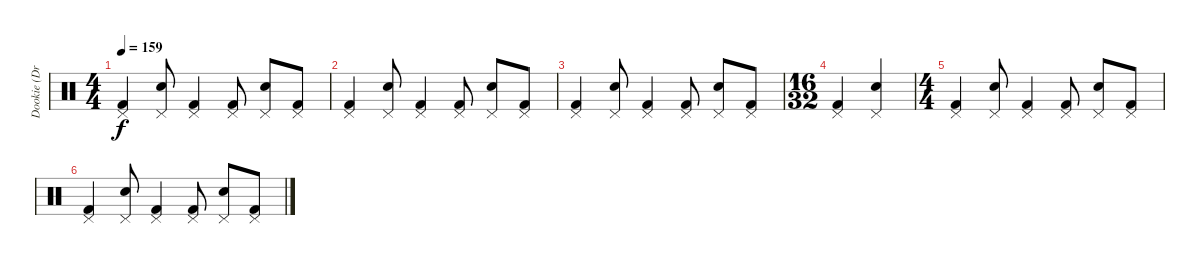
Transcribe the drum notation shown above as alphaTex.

\track ("Dookie (Drums)" "Dookie (Dr") {instrument percussion}
\staff {score}
\articulation defaults
\ts (4 4)
\tempo 159
\clef neutral
\ks c
("Kick (hit) 2" "Pedal Hi-Hat (hit)").4{dy f} ("Electric Snare (hit)" "Pedal Hi-Hat (hit)").8 ("Kick (hit) 2" "Pedal Hi-Hat (hit)").4 ("Kick (hit) 2" "Pedal Hi-Hat (hit)").8 ("Electric Snare (hit)" "Pedal Hi-Hat (hit)").8 ("Kick (hit) 2" "Pedal Hi-Hat (hit)").8 |
("Kick (hit) 2" "Pedal Hi-Hat (hit)").4 ("Electric Snare (hit)" "Pedal Hi-Hat (hit)").8 ("Kick (hit) 2" "Pedal Hi-Hat (hit)").4 ("Kick (hit) 2" "Pedal Hi-Hat (hit)").8 ("Electric Snare (hit)" "Pedal Hi-Hat (hit)").8 ("Kick (hit) 2" "Pedal Hi-Hat (hit)").8 |
("Kick (hit) 2" "Pedal Hi-Hat (hit)").4 ("Electric Snare (hit)" "Pedal Hi-Hat (hit)").8 ("Kick (hit) 2" "Pedal Hi-Hat (hit)").4 ("Kick (hit) 2" "Pedal Hi-Hat (hit)").8 ("Electric Snare (hit)" "Pedal Hi-Hat (hit)").8 ("Kick (hit) 2" "Pedal Hi-Hat (hit)").8 |
\ts (16 32)
("Kick (hit) 2" "Pedal Hi-Hat (hit)").4 ("Electric Snare (hit)" "Pedal Hi-Hat (hit)").4 |
\ts (4 4)
("Kick (hit) 2" "Pedal Hi-Hat (hit)").4 ("Electric Snare (hit)" "Pedal Hi-Hat (hit)").8 ("Kick (hit) 2" "Pedal Hi-Hat (hit)").4 ("Kick (hit) 2" "Pedal Hi-Hat (hit)").8 ("Electric Snare (hit)" "Pedal Hi-Hat (hit)").8 ("Kick (hit) 2" "Pedal Hi-Hat (hit)").8 |
("Kick (hit) 2" "Pedal Hi-Hat (hit)").4 ("Electric Snare (hit)" "Pedal Hi-Hat (hit)").8 ("Kick (hit) 2" "Pedal Hi-Hat (hit)").4 ("Kick (hit) 2" "Pedal Hi-Hat (hit)").8 ("Electric Snare (hit)" "Pedal Hi-Hat (hit)").8 ("Kick (hit) 2" "Pedal Hi-Hat (hit)").8
